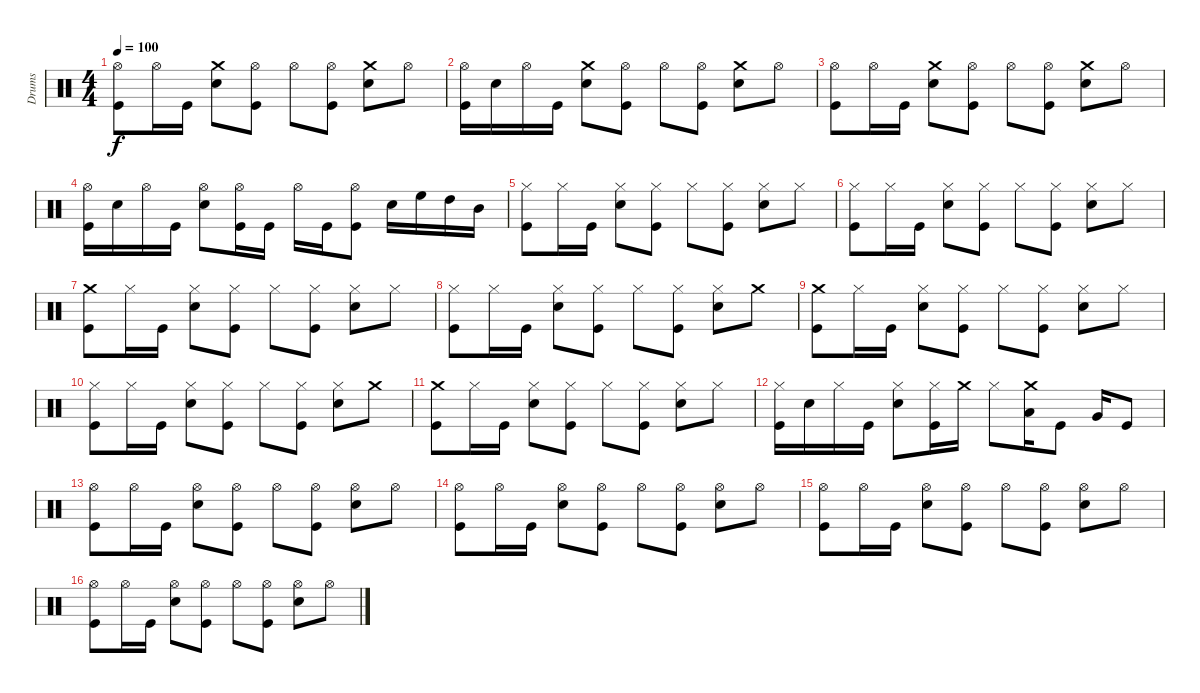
\track ("Drums" "Drums") {instrument percussion}
\staff {score}
\articulation defaults
\ts (4 4)
\tempo 100
\clef neutral
\ks c
("Hi-Hat (open)" "Kick (hit)").8{dy f} "Hi-Hat (open)".16 "Kick (hit)".16 ("Crash medium (hit)" "Electric Snare (hit)").8 ("Hi-Hat (open)" "Kick (hit)").8 "Hi-Hat (open)".8 ("Hi-Hat (open)" "Kick (hit)").8 ("Crash medium (hit)" "Electric Snare (hit)").8 "Hi-Hat (open)".8 |
("Hi-Hat (open)" "Kick (hit)").16 "Electric Snare (hit)".16 "Hi-Hat (open)".16 "Kick (hit)".16 ("Crash medium (hit)" "Electric Snare (hit)").8 ("Hi-Hat (open)" "Kick (hit)").8 "Hi-Hat (open)".8 ("Hi-Hat (open)" "Kick (hit)").8 ("Crash medium (hit)" "Electric Snare (hit)").8 "Hi-Hat (open)".8 |
("Hi-Hat (open)" "Kick (hit)").8 "Hi-Hat (open)".16 "Kick (hit)".16 ("Crash medium (hit)" "Electric Snare (hit)").8 ("Hi-Hat (open)" "Kick (hit)").8 "Hi-Hat (open)".8 ("Hi-Hat (open)" "Kick (hit)").8 ("Crash medium (hit)" "Electric Snare (hit)").8 "Hi-Hat (open)".8 |
("Hi-Hat (open)" "Kick (hit)").16 "Electric Snare (hit)".16 "Hi-Hat (open)".16 "Kick (hit)".16 ("Hi-Hat (open)" "Electric Snare (hit)").8 ("Hi-Hat (open)" "Kick (hit)").16 "Kick (hit)".16 "Hi-Hat (open)".16 "Kick (hit)".16 ("Hi-Hat (open)" "Kick (hit)").8 "Electric Snare (hit)".16 "High Floor Tom (hit)".16 "High Tom (hit)".16 "Mid Tom (hit)".16 |
("Hi-Hat (closed)" "Kick (hit)").8 "Hi-Hat (closed)".16 "Kick (hit)".16 ("Hi-Hat (closed)" "Electric Snare (hit)").8 ("Hi-Hat (closed)" "Kick (hit)").8 "Hi-Hat (closed)".8 ("Hi-Hat (closed)" "Kick (hit)").8 ("Hi-Hat (closed)" "Electric Snare (hit)").8 "Hi-Hat (closed)".8 |
("Hi-Hat (closed)" "Kick (hit)").8 "Hi-Hat (closed)".16 "Kick (hit)".16 ("Hi-Hat (closed)" "Electric Snare (hit)").8 ("Hi-Hat (closed)" "Kick (hit)").8 "Hi-Hat (closed)".8 ("Hi-Hat (closed)" "Kick (hit)").8 ("Hi-Hat (closed)" "Electric Snare (hit)").8 "Hi-Hat (closed)".8 |
("Crash medium (hit)" "Kick (hit)").8 "Hi-Hat (closed)".16 "Kick (hit)".16 ("Hi-Hat (closed)" "Electric Snare (hit)").8 ("Hi-Hat (closed)" "Kick (hit)").8 "Hi-Hat (closed)".8 ("Hi-Hat (closed)" "Kick (hit)").8 ("Hi-Hat (closed)" "Electric Snare (hit)").8 "Hi-Hat (closed)".8 |
("Hi-Hat (closed)" "Kick (hit)").8 "Hi-Hat (closed)".16 "Kick (hit)".16 ("Hi-Hat (closed)" "Electric Snare (hit)").8 ("Hi-Hat (closed)" "Kick (hit)").8 "Hi-Hat (closed)".8 ("Hi-Hat (closed)" "Kick (hit)").8 ("Hi-Hat (closed)" "Electric Snare (hit)").8 "Crash medium (hit)".8 |
("Crash medium (hit)" "Kick (hit)").8 "Hi-Hat (closed)".16 "Kick (hit)".16 ("Hi-Hat (closed)" "Electric Snare (hit)").8 ("Hi-Hat (closed)" "Kick (hit)").8 "Hi-Hat (closed)".8 ("Hi-Hat (closed)" "Kick (hit)").8 ("Hi-Hat (closed)" "Electric Snare (hit)").8 "Hi-Hat (closed)".8 |
("Hi-Hat (closed)" "Kick (hit)").8 "Hi-Hat (closed)".16 "Kick (hit)".16 ("Hi-Hat (closed)" "Electric Snare (hit)").8 ("Hi-Hat (closed)" "Kick (hit)").8 "Hi-Hat (closed)".8 ("Hi-Hat (closed)" "Kick (hit)").8 ("Hi-Hat (closed)" "Electric Snare (hit)").8 "Crash medium (hit)".8 |
("Crash medium (hit)" "Kick (hit)").8 "Hi-Hat (closed)".16 "Kick (hit)".16 ("Hi-Hat (closed)" "Electric Snare (hit)").8 ("Hi-Hat (closed)" "Kick (hit)").8 "Hi-Hat (closed)".8 ("Hi-Hat (closed)" "Kick (hit)").8 ("Hi-Hat (closed)" "Electric Snare (hit)").8 "Hi-Hat (closed)".8 |
("Hi-Hat (closed)" "Kick (hit)").16 "Electric Snare (hit)".16 "Hi-Hat (closed)".16 "Kick (hit)".16 ("Hi-Hat (closed)" "Electric Snare (hit)").8 ("Hi-Hat (closed)" "Kick (hit)").16 "Crash medium (hit)".16 "Hi-Hat (closed)".8 ("Crash medium (hit)" "Low Floor Tom (hit)").16 "Kick (hit)".8 "Very Low Tom (hit)".16 "Kick (hit)".8 |
("Hi-Hat (open)" "Kick (hit)").8 "Hi-Hat (open)".16 "Kick (hit)".16 ("Hi-Hat (open)" "Electric Snare (hit)").8 ("Hi-Hat (open)" "Kick (hit)").8 "Hi-Hat (open)".8 ("Hi-Hat (open)" "Kick (hit)").8 ("Hi-Hat (open)" "Electric Snare (hit)").8 "Hi-Hat (open)".8 |
("Hi-Hat (open)" "Kick (hit)").8 "Hi-Hat (open)".16 "Kick (hit)".16 ("Hi-Hat (open)" "Electric Snare (hit)").8 ("Hi-Hat (open)" "Kick (hit)").8 "Hi-Hat (open)".8 ("Hi-Hat (open)" "Kick (hit)").8 ("Hi-Hat (open)" "Electric Snare (hit)").8 "Hi-Hat (open)".8 |
("Hi-Hat (open)" "Kick (hit)").8 "Hi-Hat (open)".16 "Kick (hit)".16 ("Hi-Hat (open)" "Electric Snare (hit)").8 ("Hi-Hat (open)" "Kick (hit)").8 "Hi-Hat (open)".8 ("Hi-Hat (open)" "Kick (hit)").8 ("Hi-Hat (open)" "Electric Snare (hit)").8 "Hi-Hat (open)".8 |
("Hi-Hat (open)" "Kick (hit)").8 "Hi-Hat (open)".16 "Kick (hit)".16 ("Hi-Hat (open)" "Electric Snare (hit)").8 ("Hi-Hat (open)" "Kick (hit)").8 "Hi-Hat (open)".8 ("Hi-Hat (open)" "Kick (hit)").8 ("Hi-Hat (open)" "Electric Snare (hit)").8 "Hi-Hat (open)".8
